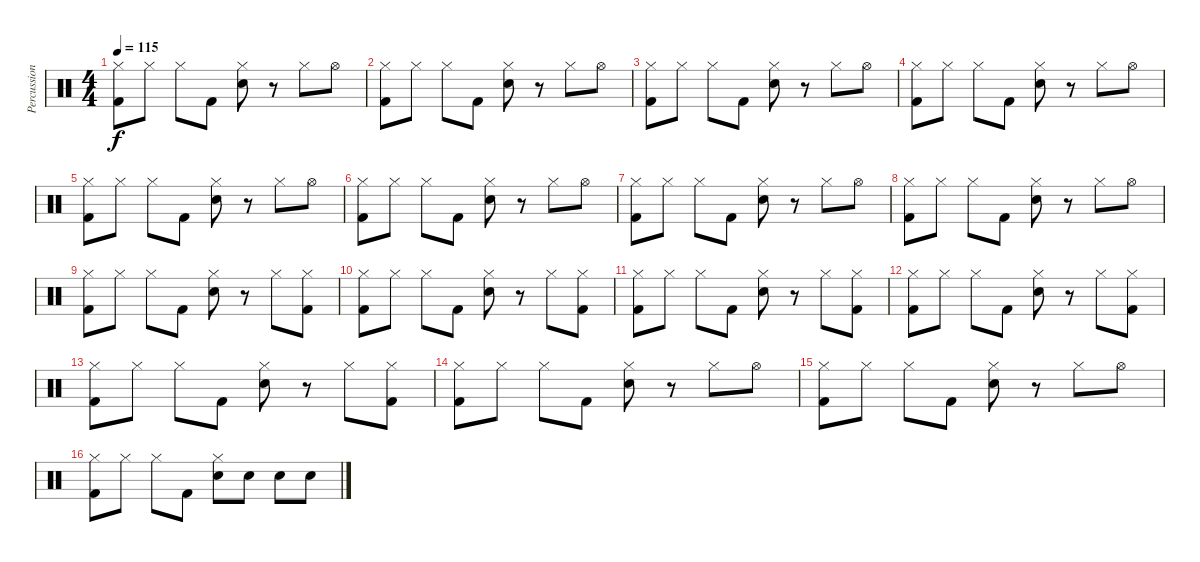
\track ("Percussion" "Percussion") {instrument percussion}
\staff {score}
\articulation defaults
\ts (4 4)
\tempo 115
\clef neutral
\ks c
("Hi-Hat (closed)" "Kick (hit) 2").8{dy f} "Hi-Hat (closed)".8 "Hi-Hat (closed)".8 "Kick (hit) 2".8 ("Hi-Hat (closed)" "Snare (hit) 2").8 r.8 "Hi-Hat (closed)".8 "Hi-Hat (open)".8 |
("Hi-Hat (closed)" "Kick (hit) 2").8 "Hi-Hat (closed)".8 "Hi-Hat (closed)".8 "Kick (hit) 2".8 ("Hi-Hat (closed)" "Snare (hit) 2").8 r.8 "Hi-Hat (closed)".8 "Hi-Hat (open)".8 |
("Hi-Hat (closed)" "Kick (hit) 2").8 "Hi-Hat (closed)".8 "Hi-Hat (closed)".8 "Kick (hit) 2".8 ("Hi-Hat (closed)" "Snare (hit) 2").8 r.8 "Hi-Hat (closed)".8 "Hi-Hat (open)".8 |
("Hi-Hat (closed)" "Kick (hit) 2").8 "Hi-Hat (closed)".8 "Hi-Hat (closed)".8 "Kick (hit) 2".8 ("Hi-Hat (closed)" "Snare (hit) 2").8 r.8 "Hi-Hat (closed)".8 "Hi-Hat (open)".8 |
("Hi-Hat (closed)" "Kick (hit) 2").8 "Hi-Hat (closed)".8 "Hi-Hat (closed)".8 "Kick (hit) 2".8 ("Hi-Hat (closed)" "Snare (hit) 2").8 r.8 "Hi-Hat (closed)".8 "Hi-Hat (open)".8 |
("Hi-Hat (closed)" "Kick (hit) 2").8 "Hi-Hat (closed)".8 "Hi-Hat (closed)".8 "Kick (hit) 2".8 ("Hi-Hat (closed)" "Snare (hit) 2").8 r.8 "Hi-Hat (closed)".8 "Hi-Hat (open)".8 |
("Hi-Hat (closed)" "Kick (hit) 2").8 "Hi-Hat (closed)".8 "Hi-Hat (closed)".8 "Kick (hit) 2".8 ("Hi-Hat (closed)" "Snare (hit) 2").8 r.8 "Hi-Hat (closed)".8 "Hi-Hat (open)".8 |
("Hi-Hat (closed)" "Kick (hit) 2").8 "Hi-Hat (closed)".8 "Hi-Hat (closed)".8 "Kick (hit) 2".8 ("Hi-Hat (closed)" "Snare (hit) 2").8 r.8 "Hi-Hat (closed)".8 "Hi-Hat (open)".8 |
("Hi-Hat (closed)" "Kick (hit) 2").8 "Hi-Hat (closed)".8 "Hi-Hat (closed)".8 "Kick (hit) 2".8 ("Hi-Hat (closed)" "Snare (hit) 2").8 r.8 "Hi-Hat (closed)".8 ("Hi-Hat (closed)" "Kick (hit) 2").8 |
("Hi-Hat (closed)" "Kick (hit) 2").8 "Hi-Hat (closed)".8 "Hi-Hat (closed)".8 "Kick (hit) 2".8 ("Hi-Hat (closed)" "Snare (hit) 2").8 r.8 "Hi-Hat (closed)".8 ("Hi-Hat (closed)" "Kick (hit) 2").8 |
("Hi-Hat (closed)" "Kick (hit) 2").8 "Hi-Hat (closed)".8 "Hi-Hat (closed)".8 "Kick (hit) 2".8 ("Hi-Hat (closed)" "Snare (hit) 2").8 r.8 "Hi-Hat (closed)".8 ("Hi-Hat (closed)" "Kick (hit) 2").8 |
("Hi-Hat (closed)" "Kick (hit) 2").8 "Hi-Hat (closed)".8 "Hi-Hat (closed)".8 "Kick (hit) 2".8 ("Hi-Hat (closed)" "Snare (hit) 2").8 r.8 "Hi-Hat (closed)".8 ("Hi-Hat (closed)" "Kick (hit) 2").8 |
("Hi-Hat (closed)" "Kick (hit) 2").8 "Hi-Hat (closed)".8 "Hi-Hat (closed)".8 "Kick (hit) 2".8 ("Hi-Hat (closed)" "Snare (hit) 2").8 r.8 "Hi-Hat (closed)".8 ("Hi-Hat (closed)" "Kick (hit) 2").8 |
("Hi-Hat (closed)" "Kick (hit) 2").8 "Hi-Hat (closed)".8 "Hi-Hat (closed)".8 "Kick (hit) 2".8 ("Hi-Hat (closed)" "Snare (hit) 2").8 r.8 "Hi-Hat (closed)".8 "Hi-Hat (open)".8 |
("Hi-Hat (closed)" "Kick (hit) 2").8 "Hi-Hat (closed)".8 "Hi-Hat (closed)".8 "Kick (hit) 2".8 ("Hi-Hat (closed)" "Snare (hit) 2").8 r.8 "Hi-Hat (closed)".8 "Hi-Hat (open)".8 |
("Hi-Hat (closed)" "Kick (hit) 2").8 "Hi-Hat (closed)".8 "Hi-Hat (closed)".8 "Kick (hit) 2".8 ("Hi-Hat (closed)" "Snare (hit) 2").8 "Snare (hit) 2".8 "Snare (hit) 2".8 "Snare (hit) 2".8
